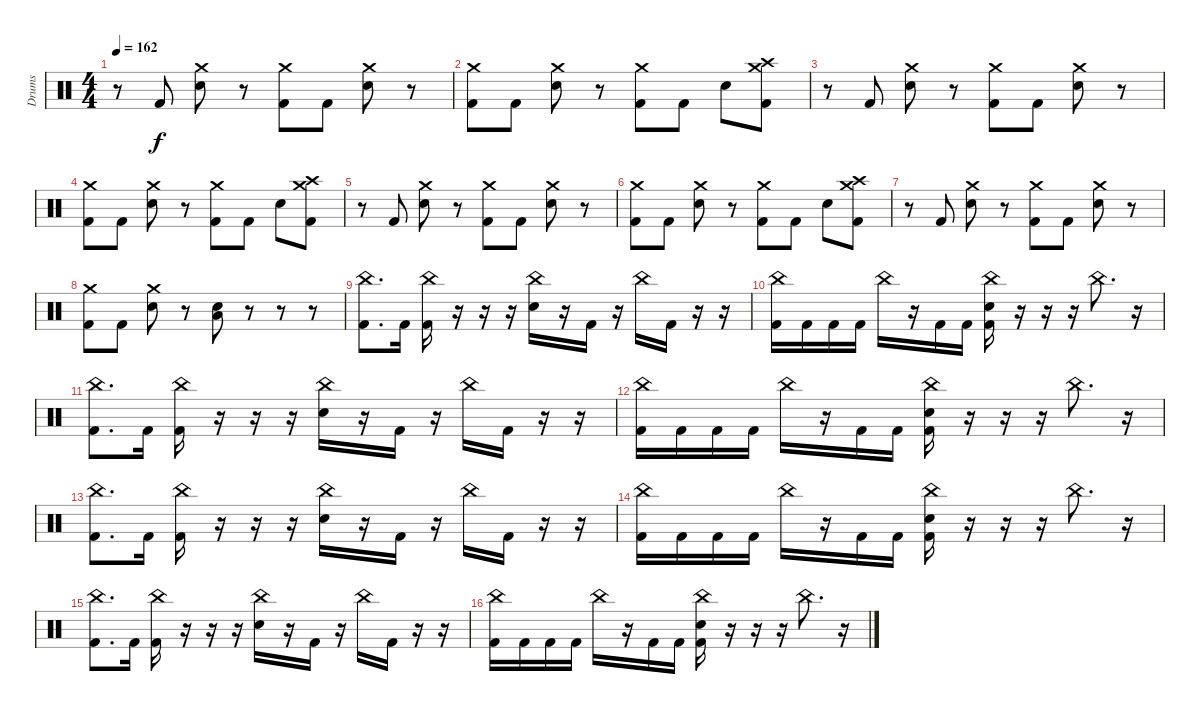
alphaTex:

\track ("Drums" "Drums") {instrument percussion}
\staff {score}
\articulation defaults
\ts (4 4)
\tempo 162
\clef neutral
\ks c
r.8{dy f} "Kick (hit) 2".8 ("Crash medium (hit)" "Electric Snare (hit)").8 r.8 ("Crash medium (hit)" "Kick (hit) 2").8 "Kick (hit) 2".8 ("Crash medium (hit)" "Electric Snare (hit)").8 r.8 |
("Crash medium (hit)" "Kick (hit) 2").8 "Kick (hit) 2".8 ("Crash medium (hit)" "Electric Snare (hit)").8 r.8 ("Crash medium (hit)" "Kick (hit) 2").8 "Kick (hit) 2".8 "Electric Snare (hit)".8 ("Crash medium (hit)" "Crash high (hit)" "Kick (hit) 2").8 |
r.8 "Kick (hit) 2".8 ("Crash medium (hit)" "Electric Snare (hit)").8 r.8 ("Crash medium (hit)" "Kick (hit) 2").8 "Kick (hit) 2".8 ("Crash medium (hit)" "Electric Snare (hit)").8 r.8 |
("Crash medium (hit)" "Kick (hit) 2").8 "Kick (hit) 2".8 ("Crash medium (hit)" "Electric Snare (hit)").8 r.8 ("Crash medium (hit)" "Kick (hit) 2").8 "Kick (hit) 2".8 "Electric Snare (hit)".8 ("Crash medium (hit)" "Crash high (hit)" "Kick (hit) 2").8 |
r.8 "Kick (hit) 2".8 ("Crash medium (hit)" "Electric Snare (hit)").8 r.8 ("Crash medium (hit)" "Kick (hit) 2").8 "Kick (hit) 2".8 ("Crash medium (hit)" "Electric Snare (hit)").8 r.8 |
("Crash medium (hit)" "Kick (hit) 2").8 "Kick (hit) 2".8 ("Crash medium (hit)" "Electric Snare (hit)").8 r.8 ("Crash medium (hit)" "Kick (hit) 2").8 "Kick (hit) 2".8 "Electric Snare (hit)".8 ("Crash medium (hit)" "Crash high (hit)" "Kick (hit) 2").8 |
r.8 "Kick (hit) 2".8 ("Crash medium (hit)" "Electric Snare (hit)").8 r.8 ("Crash medium (hit)" "Kick (hit) 2").8 "Kick (hit) 2".8 ("Crash medium (hit)" "Electric Snare (hit)").8 r.8 |
("Crash medium (hit)" "Kick (hit) 2").8 "Kick (hit) 2".8 ("Crash medium (hit)" "Electric Snare (hit)").8 r.8 ("Low Floor Tom (hit)" "Electric Snare (hit)").8 r.8 r.8 r.8 |
("China (hit)" "Kick (hit) 2").8{d} "Kick (hit) 2".16 ("China (hit)" "Kick (hit) 2").16 r.16 r.16 r.16 ("China (hit)" "Electric Snare (hit)").16 r.16 "Kick (hit) 2".16 r.16 "China (hit)".16 "Kick (hit) 2".16 r.16 r.16 |
("China (hit)" "Kick (hit) 2").16 "Kick (hit) 2".16 "Kick (hit) 2".16 "Kick (hit) 2".16 "China (hit)".16 r.16 "Kick (hit) 2".16 "Kick (hit) 2".16 ("China (hit)" "Electric Snare (hit)" "Kick (hit) 2").16 r.16 r.16 r.16 "China (hit)".8{d} r.16 |
("China (hit)" "Kick (hit) 2").8{d} "Kick (hit) 2".16 ("China (hit)" "Kick (hit) 2").16 r.16 r.16 r.16 ("China (hit)" "Electric Snare (hit)").16 r.16 "Kick (hit) 2".16 r.16 "China (hit)".16 "Kick (hit) 2".16 r.16 r.16 |
("China (hit)" "Kick (hit) 2").16 "Kick (hit) 2".16 "Kick (hit) 2".16 "Kick (hit) 2".16 "China (hit)".16 r.16 "Kick (hit) 2".16 "Kick (hit) 2".16 ("China (hit)" "Electric Snare (hit)" "Kick (hit) 2").16 r.16 r.16 r.16 "China (hit)".8{d} r.16 |
("China (hit)" "Kick (hit) 2").8{d} "Kick (hit) 2".16 ("China (hit)" "Kick (hit) 2").16 r.16 r.16 r.16 ("China (hit)" "Electric Snare (hit)").16 r.16 "Kick (hit) 2".16 r.16 "China (hit)".16 "Kick (hit) 2".16 r.16 r.16 |
("China (hit)" "Kick (hit) 2").16 "Kick (hit) 2".16 "Kick (hit) 2".16 "Kick (hit) 2".16 "China (hit)".16 r.16 "Kick (hit) 2".16 "Kick (hit) 2".16 ("China (hit)" "Electric Snare (hit)" "Kick (hit) 2").16 r.16 r.16 r.16 "China (hit)".8{d} r.16 |
("China (hit)" "Kick (hit) 2").8{d} "Kick (hit) 2".16 ("China (hit)" "Kick (hit) 2").16 r.16 r.16 r.16 ("China (hit)" "Electric Snare (hit)").16 r.16 "Kick (hit) 2".16 r.16 "China (hit)".16 "Kick (hit) 2".16 r.16 r.16 |
("China (hit)" "Kick (hit) 2").16 "Kick (hit) 2".16 "Kick (hit) 2".16 "Kick (hit) 2".16 "China (hit)".16 r.16 "Kick (hit) 2".16 "Kick (hit) 2".16 ("China (hit)" "Electric Snare (hit)" "Kick (hit) 2").16 r.16 r.16 r.16 "China (hit)".8{d} r.16
